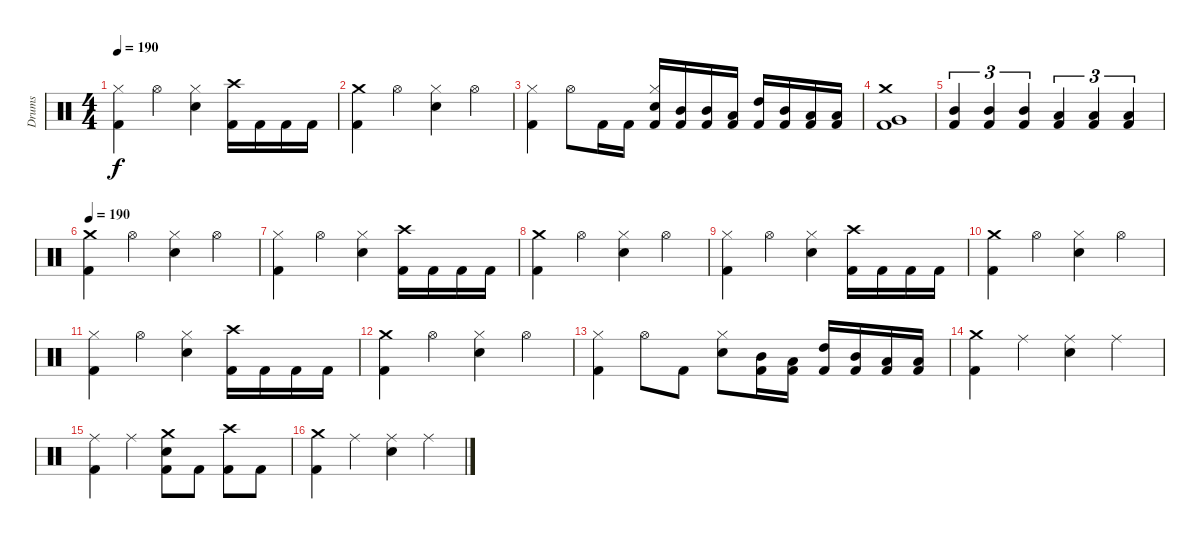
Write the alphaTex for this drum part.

\track ("Drums" "Drums") {instrument percussion}
\staff {score}
\articulation defaults
\ts (4 4)
\tempo 190
\clef neutral
\ks c
("Kick (hit) 2" "Hi-Hat (closed)").4{dy f} "Hi-Hat (open)".4 ("Electric Snare (hit)" "Hi-Hat (closed)").4 ("Kick (hit) 2" "Crash high (hit)").16 "Kick (hit) 2".16 "Kick (hit) 2".16 "Kick (hit) 2".16 |
("Kick (hit) 2" "Crash medium (hit)").4 "Hi-Hat (open)".4 ("Electric Snare (hit)" "Hi-Hat (closed)").4 "Hi-Hat (open)".4 |
("Kick (hit) 2" "Hi-Hat (closed)").4 "Hi-Hat (open)".8 "Kick (hit) 2".16 "Kick (hit) 2".16 ("Kick (hit) 2" "Electric Snare (hit)" "Hi-Hat (closed)").16 ("Kick (hit) 2" "Mid Tom (hit)").16 ("Kick (hit) 2" "Mid Tom (hit)").16 ("Kick (hit) 2" "Low Tom (hit)").16 ("Kick (hit) 2" "High Tom (hit)").16 ("Kick (hit) 2" "Mid Tom (hit)").16 ("Kick (hit) 2" "Low Tom (hit)").16 ("Kick (hit) 2" "Low Tom (hit)").16 |
("Kick (hit) 2" "Very Low Tom (hit)" "Crash medium (hit)").1 |
("Kick (hit) 2" "Mid Tom (hit)").4{tu (3 2)} ("Kick (hit) 2" "Mid Tom (hit)").4{tu (3 2)} ("Kick (hit) 2" "Mid Tom (hit)").4{tu (3 2)} ("Kick (hit) 2" "Low Tom (hit)").4{tu (3 2)} ("Kick (hit) 2" "Low Tom (hit)").4{tu (3 2)} ("Kick (hit) 2" "Low Tom (hit)").4{tu (3 2)} |
\tempo 190
("Kick (hit) 2" "Crash medium (hit)").4 "Hi-Hat (open)".4 ("Electric Snare (hit)" "Hi-Hat (closed)").4 "Hi-Hat (open)".4 |
("Kick (hit) 2" "Hi-Hat (closed)").4 "Hi-Hat (open)".4 ("Electric Snare (hit)" "Hi-Hat (closed)").4 ("Kick (hit) 2" "Crash high (hit)").16 "Kick (hit) 2".16 "Kick (hit) 2".16 "Kick (hit) 2".16 |
("Kick (hit) 2" "Crash medium (hit)").4 "Hi-Hat (open)".4 ("Electric Snare (hit)" "Hi-Hat (closed)").4 "Hi-Hat (open)".4 |
("Kick (hit) 2" "Hi-Hat (closed)").4 "Hi-Hat (open)".4 ("Electric Snare (hit)" "Hi-Hat (closed)").4 ("Kick (hit) 2" "Crash high (hit)").16 "Kick (hit) 2".16 "Kick (hit) 2".16 "Kick (hit) 2".16 |
("Kick (hit) 2" "Crash medium (hit)").4 "Hi-Hat (open)".4 ("Electric Snare (hit)" "Hi-Hat (closed)").4 "Hi-Hat (open)".4 |
("Kick (hit) 2" "Hi-Hat (closed)").4 "Hi-Hat (open)".4 ("Electric Snare (hit)" "Hi-Hat (closed)").4 ("Kick (hit) 2" "Crash high (hit)").16 "Kick (hit) 2".16 "Kick (hit) 2".16 "Kick (hit) 2".16 |
("Kick (hit) 2" "Crash medium (hit)").4 "Hi-Hat (open)".4 ("Electric Snare (hit)" "Hi-Hat (closed)").4 "Hi-Hat (open)".4 |
("Kick (hit) 2" "Hi-Hat (closed)").4 "Hi-Hat (open)".8 "Kick (hit) 2".8 ("Electric Snare (hit)" "Hi-Hat (closed)").8 ("Kick (hit) 2" "Mid Tom (hit)").16 ("Kick (hit) 2" "Low Tom (hit)").16 ("Kick (hit) 2" "High Tom (hit)").16 ("Kick (hit) 2" "Mid Tom (hit)").16 ("Kick (hit) 2" "Low Tom (hit)").16 ("Kick (hit) 2" "Low Tom (hit)").16 |
("Kick (hit) 2" "Crash medium (hit)").4 "Ride (middle)".4 ("Electric Snare (hit)" "Ride (middle)").4 "Ride (middle)".4 |
("Kick (hit) 2" "Ride (middle)").4 "Ride (middle)".4 ("Kick (hit) 2" "Electric Snare (hit)" "Crash medium (hit)").8 "Kick (hit) 2".8 ("Kick (hit) 2" "Crash high (hit)").8 "Kick (hit) 2".8 |
("Kick (hit) 2" "Crash medium (hit)").4 "Ride (middle)".4 ("Electric Snare (hit)" "Ride (middle)").4 "Ride (middle)".4
